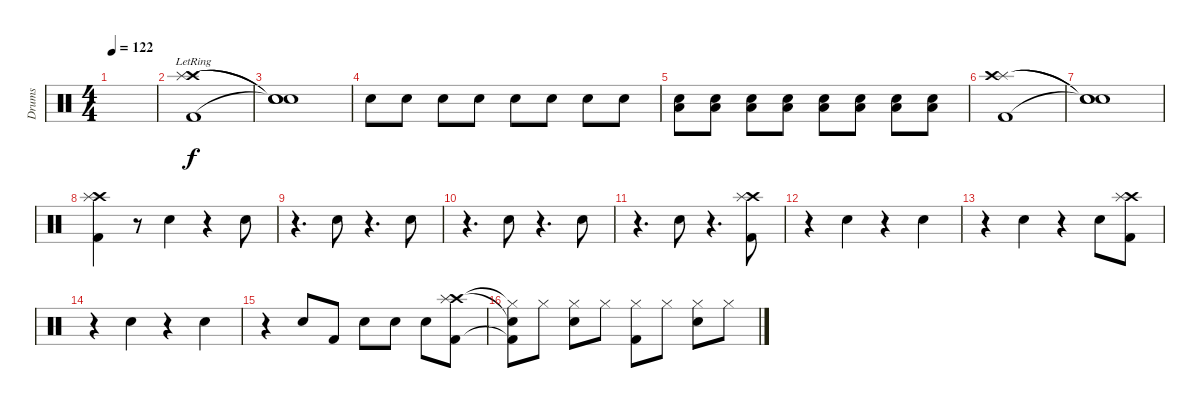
\track ("Drums" "Drums") {instrument percussion}
\staff {score}
\articulation defaults
\ts (4 4)
\tempo 122
\clef neutral
\ks c
|
("Crash high (hit)"{lr} "Splash (hit)"{lr} "Kick (hit) 2").1 |
("Snare (hit)"{t} "Snare (hit)"{t} "Snare (hit)"{t}).1{volume 0} |
"Electric Snare (hit)".8{volume 13} "Electric Snare (hit)".8 "Electric Snare (hit)".8 "Electric Snare (hit)".8 "Electric Snare (hit)".8 "Electric Snare (hit)".8 "Electric Snare (hit)".8 "Electric Snare (hit)".8 |
("Low Tom (hit)" "Electric Snare (hit)").8 ("Low Tom (hit)" "Electric Snare (hit)").8 ("Low Tom (hit)" "Electric Snare (hit)").8 ("Low Tom (hit)" "Electric Snare (hit)").8 ("Low Tom (hit)" "Electric Snare (hit)").8 ("Low Tom (hit)" "Electric Snare (hit)").8 ("Low Tom (hit)" "Electric Snare (hit)").8 ("Low Tom (hit)" "Electric Snare (hit)").8 |
("Splash (hit)" "Crash high (hit)" "Kick (hit) 2").1 |
("Snare (hit)"{t} "Snare (hit)"{t} "Snare (hit)"{t}).1 |
("Crash high (hit)" "Splash (hit)" "Kick (hit) 2").4 r.8 "Electric Snare (hit)".4 r.4 "Electric Snare (hit)".8 |
r.4{d} "Electric Snare (hit)".8 r.4{d} "Electric Snare (hit)".8 |
r.4{d} "Electric Snare (hit)".8 r.4{d} "Electric Snare (hit)".8 |
r.4{d} "Electric Snare (hit)".8 r.4{d} ("Crash high (hit)" "Splash (hit)" "Kick (hit) 2").8 |
r.4 "Electric Snare (hit)".4 r.4 "Electric Snare (hit)".4 |
r.4 "Electric Snare (hit)".4 r.4 "Electric Snare (hit)".8 ("Crash high (hit)" "Splash (hit)" "Kick (hit) 2").8 |
r.4 "Electric Snare (hit)".4 r.4 "Electric Snare (hit)".4 |
r.4 "Electric Snare (hit)".8 "Kick (hit) 2".8 "Electric Snare (hit)".8 "Electric Snare (hit)".8 "Electric Snare (hit)".8 ("Crash high (hit)" "Splash (hit)" "Kick (hit) 2").8 |
("Hi-Hat (closed)"{t} "Snare (hit)"{t} "Kick (hit) 2"{t}).8 "Hi-Hat (closed)".8 ("Hi-Hat (closed)" "Electric Snare (hit)").8 "Hi-Hat (closed)".8 ("Hi-Hat (closed)" "Kick (hit) 2").8 "Hi-Hat (closed)".8 ("Hi-Hat (closed)" "Electric Snare (hit)").8 "Hi-Hat (closed)".8
